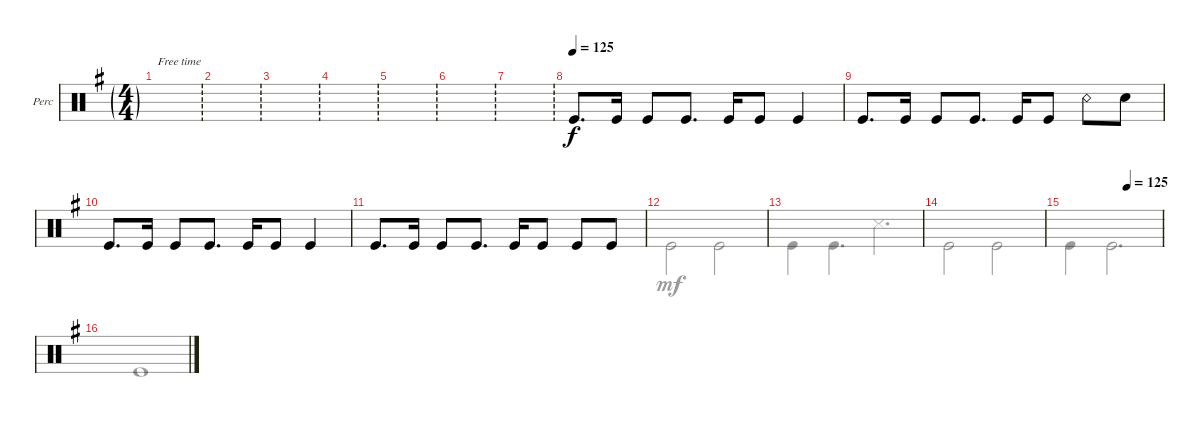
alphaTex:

\defaultSystemsLayout 4
\bracketExtendMode groupsimilarinstruments
\firstSystemTrackNameOrientation horizontal
\otherSystemsTrackNameOrientation horizontal
\track ("Percussion" "Perc") {instrument percussion}
\staff {score}
\articulation defaults
\voice
\ts (4 4)
\ft
\scale
0.246135
\tempo (110 hide)
\accidentals auto
\clef neutral
\ottava regular
\simile none
\ks eminor
|
\ft
\scale
0.26068 |
\ft
\scale
0.426294 |
\ft
\scale
0.573825 |
\ft
\scale
0.500973 |
\ft
\scale
0.499002 |
\ft
|
\scale
0.54503
\tempo (125)
"Kick (hit)".8{d} "Kick (hit)".16 "Kick (hit)".8 "Kick (hit)".8{d} "Kick (hit)".16 "Kick (hit)".8 "Kick (hit)".4 |
\scale
0.454959 "Kick (hit)".8{d} "Kick (hit)".16 "Kick (hit)".8 "Kick (hit)".8{d} "Kick (hit)".16 "Kick (hit)".8 "Snare (rim shot)".8 "Snare (hit) 2".8 |
\scale
0.514384 "Kick (hit)".8{d} "Kick (hit)".16 "Kick (hit)".8 "Kick (hit)".8{d} "Kick (hit)".16 "Kick (hit)".8 "Kick (hit)".4 |
\scale
0.485419 "Kick (hit)".8{d} "Kick (hit)".16 "Kick (hit)".8 "Kick (hit)".8{d} "Kick (hit)".16 "Kick (hit)".8 "Kick (hit)".8 "Kick (hit)".8 |
\scale
0.520917 |
\scale
0.478978 |
\scale
0.333333 |
\tempo (125 0.625)
\tempo (60.8706 0.96875 hide)
|
\scale
0.156137
\tempo (125 hide)
\voice
\clef neutral
\ottava regular
\simile none
\ks eminor
|
|
|
|
|
|
|
|
|
|
|
"Kick (hit)".2{dy mf} "Kick (hit)".2 |
"Kick (hit)".4 "Kick (hit)".4{d} "Snare (side stick) 3".4{d} |
\scale
0.333333 "Kick (hit)".2 "Kick (hit)".2 |
"Kick (hit)".4 "Kick (hit)".2{d} |
"Kick (hit)".1{fermata (medium 0)}
